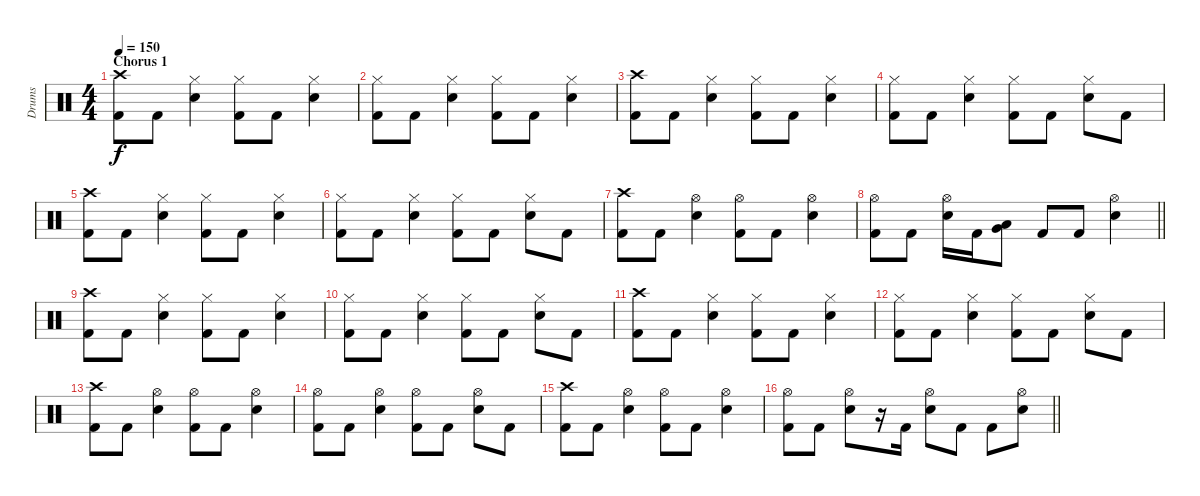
\track ("Drums" "Drums") {instrument percussion}
\staff {score}
\articulation defaults
\ts (4 4)
\section ("" "Chorus 1")
\tempo 150
\clef neutral
\ks c
("Crash high (hit)" "Kick (hit) 2").8{dy f} "Kick (hit) 2".8 ("Hi-Hat (closed)" "Electric Snare (hit)").4 ("Hi-Hat (closed)" "Kick (hit) 2").8 "Kick (hit) 2".8 ("Hi-Hat (closed)" "Electric Snare (hit)").4 |
("Hi-Hat (closed)" "Kick (hit) 2").8 "Kick (hit) 2".8 ("Hi-Hat (closed)" "Electric Snare (hit)").4 ("Hi-Hat (closed)" "Kick (hit) 2").8 "Kick (hit) 2".8 ("Hi-Hat (closed)" "Electric Snare (hit)").4 |
("Crash high (hit)" "Kick (hit) 2").8 "Kick (hit) 2".8 ("Hi-Hat (closed)" "Electric Snare (hit)").4 ("Hi-Hat (closed)" "Kick (hit) 2").8 "Kick (hit) 2".8 ("Hi-Hat (closed)" "Electric Snare (hit)").4 |
("Hi-Hat (closed)" "Kick (hit) 2").8 "Kick (hit) 2".8 ("Hi-Hat (closed)" "Electric Snare (hit)").4 ("Hi-Hat (closed)" "Kick (hit) 2").8 "Kick (hit) 2".8 ("Hi-Hat (closed)" "Electric Snare (hit)").8 "Kick (hit) 2".8 |
("Crash high (hit)" "Kick (hit) 2").8 "Kick (hit) 2".8 ("Hi-Hat (closed)" "Electric Snare (hit)").4 ("Hi-Hat (closed)" "Kick (hit) 2").8 "Kick (hit) 2".8 ("Hi-Hat (closed)" "Electric Snare (hit)").4 |
("Hi-Hat (closed)" "Kick (hit) 2").8 "Kick (hit) 2".8 ("Hi-Hat (closed)" "Electric Snare (hit)").4 ("Hi-Hat (closed)" "Kick (hit) 2").8 "Kick (hit) 2".8 ("Hi-Hat (closed)" "Electric Snare (hit)").8 "Kick (hit) 2".8 |
("Crash high (hit)" "Kick (hit) 2").8 "Kick (hit) 2".8 ("Hi-Hat (open)" "Electric Snare (hit)").4 ("Hi-Hat (open)" "Kick (hit) 2").8 "Kick (hit) 2".8 ("Hi-Hat (open)" "Electric Snare (hit)").4 |
\barLineRight lightlight
("Hi-Hat (open)" "Kick (hit) 2").8 "Kick (hit) 2".8 ("Hi-Hat (open)" "Electric Snare (hit)").16 "Kick (hit) 2".16 ("Low Tom (hit)" "Very Low Tom (hit)").8 "Kick (hit) 2".8 "Kick (hit) 2".8 ("Hi-Hat (open)" "Electric Snare (hit)").4 |
("Crash high (hit)" "Kick (hit) 2").8 "Kick (hit) 2".8 ("Hi-Hat (closed)" "Electric Snare (hit)").4 ("Hi-Hat (closed)" "Kick (hit) 2").8 "Kick (hit) 2".8 ("Hi-Hat (closed)" "Electric Snare (hit)").4 |
("Hi-Hat (closed)" "Kick (hit) 2").8 "Kick (hit) 2".8 ("Hi-Hat (closed)" "Electric Snare (hit)").4 ("Hi-Hat (closed)" "Kick (hit) 2").8 "Kick (hit) 2".8 ("Hi-Hat (closed)" "Electric Snare (hit)").8 "Kick (hit) 2".8 |
("Crash high (hit)" "Kick (hit) 2").8 "Kick (hit) 2".8 ("Hi-Hat (closed)" "Electric Snare (hit)").4 ("Hi-Hat (closed)" "Kick (hit) 2").8 "Kick (hit) 2".8 ("Hi-Hat (closed)" "Electric Snare (hit)").4 |
("Hi-Hat (closed)" "Kick (hit) 2").8 "Kick (hit) 2".8 ("Hi-Hat (closed)" "Electric Snare (hit)").4 ("Hi-Hat (closed)" "Kick (hit) 2").8 "Kick (hit) 2".8 ("Hi-Hat (closed)" "Electric Snare (hit)").8 "Kick (hit) 2".8 |
("Crash high (hit)" "Kick (hit) 2").8 "Kick (hit) 2".8 ("Hi-Hat (open)" "Electric Snare (hit)").4 ("Hi-Hat (open)" "Kick (hit) 2").8 "Kick (hit) 2".8 ("Hi-Hat (open)" "Electric Snare (hit)").4 |
("Hi-Hat (open)" "Kick (hit) 2").8 "Kick (hit) 2".8 ("Hi-Hat (open)" "Electric Snare (hit)").4 ("Hi-Hat (open)" "Kick (hit) 2").8 "Kick (hit) 2".8 ("Hi-Hat (open)" "Electric Snare (hit)").8 "Kick (hit) 2".8 |
("Crash high (hit)" "Kick (hit) 2").8 "Kick (hit) 2".8 ("Hi-Hat (open)" "Electric Snare (hit)").4 ("Hi-Hat (open)" "Kick (hit) 2").8 "Kick (hit) 2".8 ("Hi-Hat (open)" "Electric Snare (hit)").4 |
\barLineRight lightlight
("Hi-Hat (open)" "Kick (hit) 2").8 "Kick (hit) 2".8 ("Hi-Hat (open)" "Electric Snare (hit)").8 r.16 "Kick (hit) 2".16 ("Hi-Hat (open)" "Electric Snare (hit)").8 "Kick (hit) 2".8 "Kick (hit) 2".8 ("Hi-Hat (open)" "Electric Snare (hit)").8
